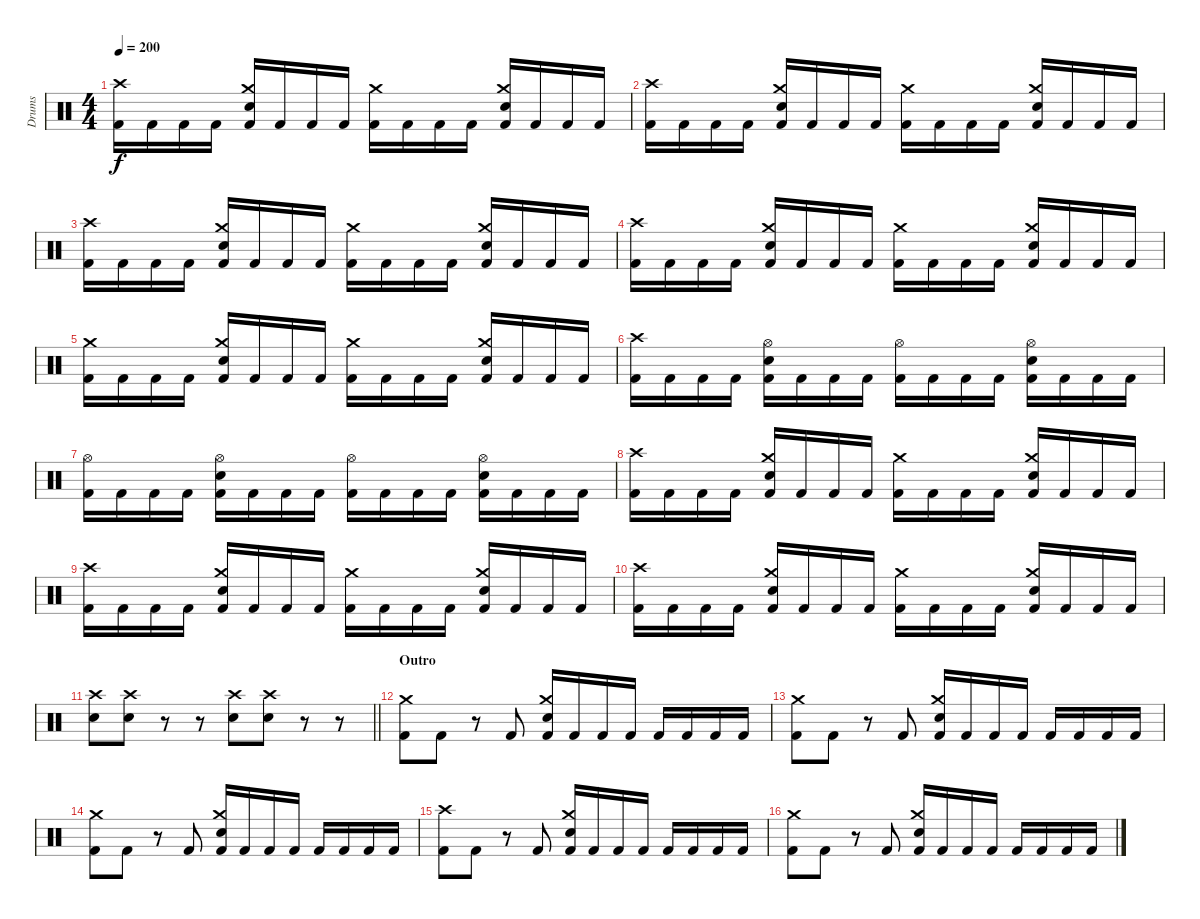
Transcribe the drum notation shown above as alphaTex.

\track ("Drums" "Drums") {instrument percussion}
\staff {score}
\articulation defaults
\ts (4 4)
\tempo 200
\clef neutral
\ks c
("Crash high (hit)" "Kick (hit) 2").16{dy f} "Kick (hit) 2".16 "Kick (hit) 2".16 "Kick (hit) 2".16 ("Crash medium (hit)" "Electric Snare (hit)" "Kick (hit) 2").16 "Kick (hit) 2".16 "Kick (hit) 2".16 "Kick (hit) 2".16 ("Crash medium (hit)" "Kick (hit) 2").16 "Kick (hit) 2".16 "Kick (hit) 2".16 "Kick (hit) 2".16 ("Crash medium (hit)" "Electric Snare (hit)" "Kick (hit) 2").16 "Kick (hit) 2".16 "Kick (hit) 2".16 "Kick (hit) 2".16 |
("Crash high (hit)" "Kick (hit) 2").16 "Kick (hit) 2".16 "Kick (hit) 2".16 "Kick (hit) 2".16 ("Crash medium (hit)" "Electric Snare (hit)" "Kick (hit) 2").16 "Kick (hit) 2".16 "Kick (hit) 2".16 "Kick (hit) 2".16 ("Crash medium (hit)" "Kick (hit) 2").16 "Kick (hit) 2".16 "Kick (hit) 2".16 "Kick (hit) 2".16 ("Crash medium (hit)" "Electric Snare (hit)" "Kick (hit) 2").16 "Kick (hit) 2".16 "Kick (hit) 2".16 "Kick (hit) 2".16 |
("Crash high (hit)" "Kick (hit) 2").16 "Kick (hit) 2".16 "Kick (hit) 2".16 "Kick (hit) 2".16 ("Crash medium (hit)" "Electric Snare (hit)" "Kick (hit) 2").16 "Kick (hit) 2".16 "Kick (hit) 2".16 "Kick (hit) 2".16 ("Crash medium (hit)" "Kick (hit) 2").16 "Kick (hit) 2".16 "Kick (hit) 2".16 "Kick (hit) 2".16 ("Crash medium (hit)" "Electric Snare (hit)" "Kick (hit) 2").16 "Kick (hit) 2".16 "Kick (hit) 2".16 "Kick (hit) 2".16 |
("Crash high (hit)" "Kick (hit) 2").16 "Kick (hit) 2".16 "Kick (hit) 2".16 "Kick (hit) 2".16 ("Crash medium (hit)" "Electric Snare (hit)" "Kick (hit) 2").16 "Kick (hit) 2".16 "Kick (hit) 2".16 "Kick (hit) 2".16 ("Crash medium (hit)" "Kick (hit) 2").16 "Kick (hit) 2".16 "Kick (hit) 2".16 "Kick (hit) 2".16 ("Crash medium (hit)" "Electric Snare (hit)" "Kick (hit) 2").16 "Kick (hit) 2".16 "Kick (hit) 2".16 "Kick (hit) 2".16 |
("Crash medium (hit)" "Kick (hit) 2").16 "Kick (hit) 2".16 "Kick (hit) 2".16 "Kick (hit) 2".16 ("Crash medium (hit)" "Electric Snare (hit)" "Kick (hit) 2").16 "Kick (hit) 2".16 "Kick (hit) 2".16 "Kick (hit) 2".16 ("Crash medium (hit)" "Kick (hit) 2").16 "Kick (hit) 2".16 "Kick (hit) 2".16 "Kick (hit) 2".16 ("Crash medium (hit)" "Electric Snare (hit)" "Kick (hit) 2").16 "Kick (hit) 2".16 "Kick (hit) 2".16 "Kick (hit) 2".16 |
("Crash high (hit)" "Kick (hit) 2").16 "Kick (hit) 2".16 "Kick (hit) 2".16 "Kick (hit) 2".16 ("Hi-Hat (open)" "Electric Snare (hit)" "Kick (hit) 2").16 "Kick (hit) 2".16 "Kick (hit) 2".16 "Kick (hit) 2".16 ("Hi-Hat (open)" "Kick (hit) 2").16 "Kick (hit) 2".16 "Kick (hit) 2".16 "Kick (hit) 2".16 ("Hi-Hat (open)" "Electric Snare (hit)" "Kick (hit) 2").16 "Kick (hit) 2".16 "Kick (hit) 2".16 "Kick (hit) 2".16 |
("Hi-Hat (open)" "Kick (hit) 2").16 "Kick (hit) 2".16 "Kick (hit) 2".16 "Kick (hit) 2".16 ("Hi-Hat (open)" "Electric Snare (hit)" "Kick (hit) 2").16 "Kick (hit) 2".16 "Kick (hit) 2".16 "Kick (hit) 2".16 ("Hi-Hat (open)" "Kick (hit) 2").16 "Kick (hit) 2".16 "Kick (hit) 2".16 "Kick (hit) 2".16 ("Hi-Hat (open)" "Electric Snare (hit)" "Kick (hit) 2").16 "Kick (hit) 2".16 "Kick (hit) 2".16 "Kick (hit) 2".16 |
("Crash high (hit)" "Kick (hit) 2").16 "Kick (hit) 2".16 "Kick (hit) 2".16 "Kick (hit) 2".16 ("Crash medium (hit)" "Electric Snare (hit)" "Kick (hit) 2").16 "Kick (hit) 2".16 "Kick (hit) 2".16 "Kick (hit) 2".16 ("Crash medium (hit)" "Kick (hit) 2").16 "Kick (hit) 2".16 "Kick (hit) 2".16 "Kick (hit) 2".16 ("Crash medium (hit)" "Electric Snare (hit)" "Kick (hit) 2").16 "Kick (hit) 2".16 "Kick (hit) 2".16 "Kick (hit) 2".16 |
("Crash high (hit)" "Kick (hit) 2").16 "Kick (hit) 2".16 "Kick (hit) 2".16 "Kick (hit) 2".16 ("Crash medium (hit)" "Electric Snare (hit)" "Kick (hit) 2").16 "Kick (hit) 2".16 "Kick (hit) 2".16 "Kick (hit) 2".16 ("Crash medium (hit)" "Kick (hit) 2").16 "Kick (hit) 2".16 "Kick (hit) 2".16 "Kick (hit) 2".16 ("Crash medium (hit)" "Electric Snare (hit)" "Kick (hit) 2").16 "Kick (hit) 2".16 "Kick (hit) 2".16 "Kick (hit) 2".16 |
("Crash high (hit)" "Kick (hit) 2").16 "Kick (hit) 2".16 "Kick (hit) 2".16 "Kick (hit) 2".16 ("Crash medium (hit)" "Electric Snare (hit)" "Kick (hit) 2").16 "Kick (hit) 2".16 "Kick (hit) 2".16 "Kick (hit) 2".16 ("Crash medium (hit)" "Kick (hit) 2").16 "Kick (hit) 2".16 "Kick (hit) 2".16 "Kick (hit) 2".16 ("Crash medium (hit)" "Electric Snare (hit)" "Kick (hit) 2").16 "Kick (hit) 2".16 "Kick (hit) 2".16 "Kick (hit) 2".16 |
\barLineRight lightlight
("Crash high (hit)" "Electric Snare (hit)").8 ("Crash high (hit)" "Electric Snare (hit)").8 r.8 r.8 ("Crash high (hit)" "Electric Snare (hit)").8 ("Crash high (hit)" "Electric Snare (hit)").8 r.8 r.8 |
\section ("" "Outro")
("Crash medium (hit)" "Kick (hit) 2").8 "Kick (hit) 2".8 r.8 "Kick (hit) 2".8 ("Crash medium (hit)" "Electric Snare (hit)" "Kick (hit) 2").16 "Kick (hit) 2".16 "Kick (hit) 2".16 "Kick (hit) 2".16 "Kick (hit) 2".16 "Kick (hit) 2".16 "Kick (hit) 2".16 "Kick (hit) 2".16 |
("Crash medium (hit)" "Kick (hit) 2").8 "Kick (hit) 2".8 r.8 "Kick (hit) 2".8 ("Crash medium (hit)" "Electric Snare (hit)" "Kick (hit) 2").16 "Kick (hit) 2".16 "Kick (hit) 2".16 "Kick (hit) 2".16 "Kick (hit) 2".16 "Kick (hit) 2".16 "Kick (hit) 2".16 "Kick (hit) 2".16 |
("Crash medium (hit)" "Kick (hit) 2").8 "Kick (hit) 2".8 r.8 "Kick (hit) 2".8 ("Crash medium (hit)" "Electric Snare (hit)" "Kick (hit) 2").16 "Kick (hit) 2".16 "Kick (hit) 2".16 "Kick (hit) 2".16 "Kick (hit) 2".16 "Kick (hit) 2".16 "Kick (hit) 2".16 "Kick (hit) 2".16 |
("Crash high (hit)" "Kick (hit) 2").8 "Kick (hit) 2".8 r.8 "Kick (hit) 2".8 ("Crash medium (hit)" "Electric Snare (hit)" "Kick (hit) 2").16 "Kick (hit) 2".16 "Kick (hit) 2".16 "Kick (hit) 2".16 "Kick (hit) 2".16 "Kick (hit) 2".16 "Kick (hit) 2".16 "Kick (hit) 2".16 |
("Crash medium (hit)" "Kick (hit) 2").8 "Kick (hit) 2".8 r.8 "Kick (hit) 2".8 ("Crash medium (hit)" "Electric Snare (hit)" "Kick (hit) 2").16 "Kick (hit) 2".16 "Kick (hit) 2".16 "Kick (hit) 2".16 "Kick (hit) 2".16 "Kick (hit) 2".16 "Kick (hit) 2".16 "Kick (hit) 2".16
